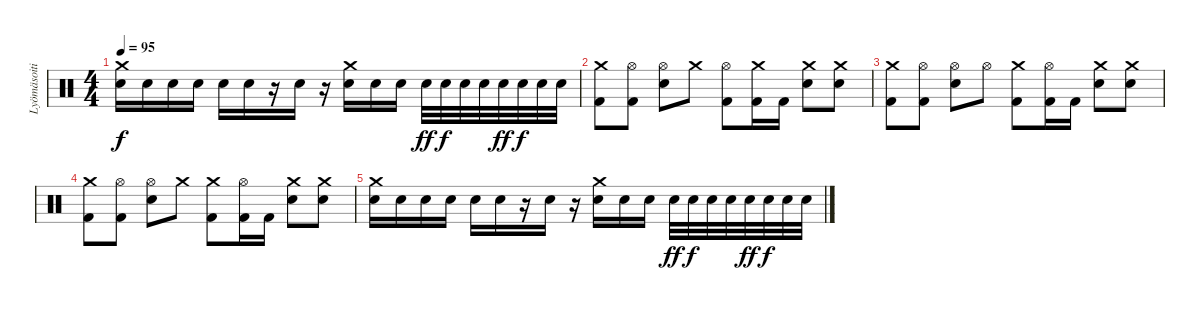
\track ("Lyömäsoitin" "Lyömäsoiti") {instrument percussion}
\staff {score}
\articulation defaults
\ts (4 4)
\tempo 95
\clef neutral
\ks c
("Crash medium (hit)" "Electric Snare (hit)").16{dy f} "Electric Snare (hit)".16 "Electric Snare (hit)".16 "Electric Snare (hit)".16 "Electric Snare (hit)".16 "Electric Snare (hit)".16 r.16 "Electric Snare (hit)".16 r.16 ("Crash medium (hit)" "Electric Snare (hit)").16 "Electric Snare (hit)".16 "Electric Snare (hit)".16 "Electric Snare (hit)".32{dy ff} "Electric Snare (hit)".32{dy f} "Electric Snare (hit)".32 "Electric Snare (hit)".32 "Electric Snare (hit)".32{dy ff} "Electric Snare (hit)".32{dy f} "Electric Snare (hit)".32 "Electric Snare (hit)".32 |
("Crash medium (hit)" "Kick (hit) 2").8 ("Hi-Hat (open)" "Kick (hit) 2").8 ("Hi-Hat (open)" "Electric Snare (hit)").8 "Crash medium (hit)".8 ("Hi-Hat (open)" "Kick (hit) 2").8 ("Crash medium (hit)" "Kick (hit) 2").16 "Kick (hit) 2".16 ("Crash medium (hit)" "Electric Snare (hit)").8 ("Crash medium (hit)" "Electric Snare (hit)").8 |
("Crash medium (hit)" "Kick (hit) 2").8 ("Hi-Hat (open)" "Kick (hit) 2").8 ("Hi-Hat (open)" "Electric Snare (hit)").8 "Hi-Hat (open)".8 ("Crash medium (hit)" "Kick (hit) 2").8 ("Hi-Hat (open)" "Kick (hit) 2").16 "Kick (hit) 2".16 ("Crash medium (hit)" "Electric Snare (hit)").8 ("Crash medium (hit)" "Electric Snare (hit)").8 |
("Crash medium (hit)" "Kick (hit) 2").8 ("Hi-Hat (open)" "Kick (hit) 2").8 ("Hi-Hat (open)" "Electric Snare (hit)").8 "Crash medium (hit)".8 ("Crash medium (hit)" "Kick (hit) 2").8 ("Hi-Hat (open)" "Kick (hit) 2").16 "Kick (hit) 2".16 ("Crash medium (hit)" "Electric Snare (hit)").8 ("Crash medium (hit)" "Electric Snare (hit)").8 |
("Crash medium (hit)" "Electric Snare (hit)").16 "Electric Snare (hit)".16 "Electric Snare (hit)".16 "Electric Snare (hit)".16 "Electric Snare (hit)".16 "Electric Snare (hit)".16 r.16 "Electric Snare (hit)".16 r.16 ("Crash medium (hit)" "Electric Snare (hit)").16 "Electric Snare (hit)".16 "Electric Snare (hit)".16 "Electric Snare (hit)".32{dy ff} "Electric Snare (hit)".32{dy f} "Electric Snare (hit)".32 "Electric Snare (hit)".32 "Electric Snare (hit)".32{dy ff} "Electric Snare (hit)".32{dy f} "Electric Snare (hit)".32 "Electric Snare (hit)".32
